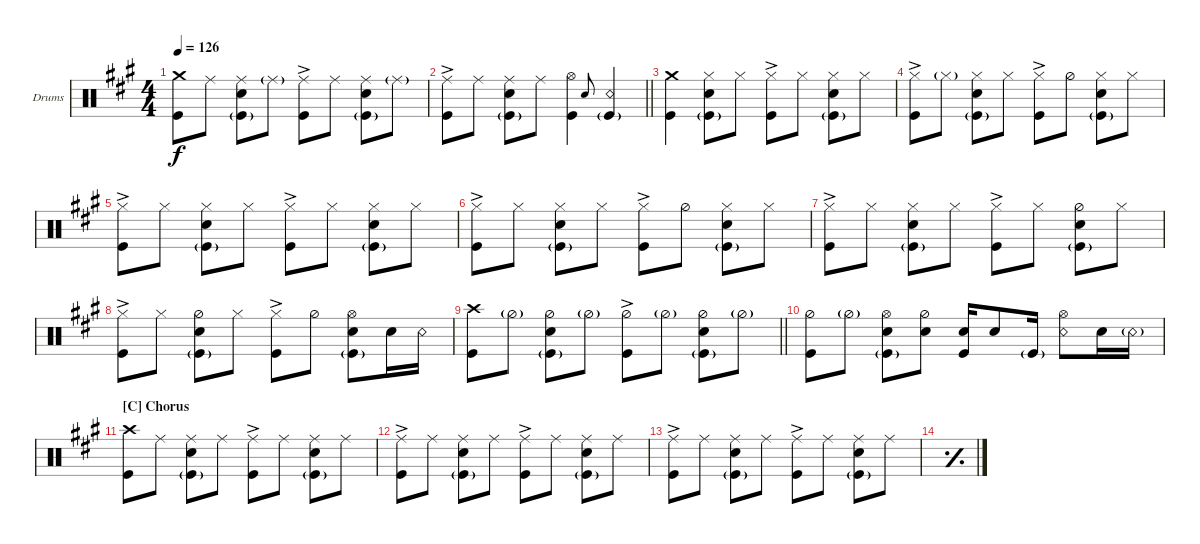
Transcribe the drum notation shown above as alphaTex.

\bracketExtendMode groupsimilarinstruments
\firstSystemTrackNameOrientation horizontal
\otherSystemsTrackNameOrientation horizontal
\track ("Drumkit" "Drums") {instrument percussion}
\staff {score}
\articulation defaults
\ts (4 4)
\tempo 126
\clef neutral
\ks a
("Kick (hit)" "Crash medium (hit)").8{dy f} "Ride (middle)".8 ("Ride (middle)" "Snare (hit) 2" "Kick (hit)"{g}).8 "Ride (middle)"{g}.8 ("Ride (middle)"{ac} "Kick (hit)").8 "Ride (middle)".8 ("Ride (middle)" "Snare (hit) 2" "Kick (hit)"{g}).8 "Ride (middle)"{g}.8 |
\barLineRight lightlight
("Ride (middle)"{ac} "Kick (hit)").8 "Ride (middle)".8 ("Ride (middle)" "Snare (hit) 2" "Kick (hit)"{g}).8 "Ride (middle)".8 ("Kick (hit)" "Hi-Hat (open)").4 "Snare (hit) 2".8{gr onbeat} ("Snare (rim shot)" "Kick (hit)"{g}).4 |
("Kick (hit)" "Crash medium (hit)").4 ("Snare (hit) 2" "Kick (hit)"{g} "Hi-Hat (closed)").8 "Hi-Hat (closed)".8 ("Kick (hit)" "Hi-Hat (closed)"{ac}).8 "Hi-Hat (closed)".8 ("Snare (hit) 2" "Kick (hit)"{g} "Hi-Hat (closed)").8 "Hi-Hat (closed)".8 |
("Kick (hit)" "Hi-Hat (closed)"{ac}).8 "Hi-Hat (closed)"{g}.8 ("Snare (hit) 2" "Kick (hit)"{g} "Hi-Hat (closed)").8 "Hi-Hat (closed)".8 ("Kick (hit)" "Hi-Hat (closed)"{ac}).8 "Hi-Hat (half)".8 ("Snare (hit) 2" "Kick (hit)"{g} "Hi-Hat (closed)").8 "Hi-Hat (closed)".8 |
("Kick (hit)" "Hi-Hat (closed)"{ac}).8 "Hi-Hat (closed)".8 ("Snare (hit) 2" "Kick (hit)"{g} "Hi-Hat (closed)").8 "Hi-Hat (closed)".8 ("Kick (hit)" "Hi-Hat (closed)"{ac}).8 "Hi-Hat (closed)".8 ("Snare (hit) 2" "Kick (hit)"{g} "Hi-Hat (closed)").8 "Hi-Hat (closed)".8 |
("Kick (hit)" "Hi-Hat (closed)"{ac}).8 "Hi-Hat (closed)".8 ("Snare (hit) 2" "Kick (hit)"{g} "Hi-Hat (closed)").8 "Hi-Hat (closed)".8 ("Kick (hit)" "Hi-Hat (closed)"{ac}).8 "Hi-Hat (half)".8 ("Snare (hit) 2" "Kick (hit)"{g} "Hi-Hat (closed)").8 "Hi-Hat (closed)".8 |
("Kick (hit)" "Hi-Hat (closed)"{ac}).8 "Hi-Hat (closed)".8 ("Snare (hit) 2" "Kick (hit)"{g} "Hi-Hat (closed)").8 "Hi-Hat (closed)".8 ("Kick (hit)" "Hi-Hat (closed)"{ac}).8 "Hi-Hat (closed)".8 ("Snare (hit) 2" "Kick (hit)"{g} "Hi-Hat (half)").8 "Hi-Hat (closed)".8 |
("Kick (hit)" "Hi-Hat (closed)"{ac}).8 "Hi-Hat (closed)".8 ("Snare (hit) 2" "Kick (hit)"{g} "Hi-Hat (half)").8 "Hi-Hat (closed)".8 ("Kick (hit)" "Hi-Hat (closed)"{ac}).8 "Hi-Hat (half)".8 ("Snare (hit) 2" "Kick (hit)"{g} "Hi-Hat (open)").8 "Snare (hit) 2".16 "Snare (rim shot)".16 |
\barLineRight lightlight
("Kick (hit)" "Crash high (hit)").8 "Hi-Hat (half)"{g}.8 ("Snare (hit) 2" "Kick (hit)"{g} "Hi-Hat (half)").8 "Hi-Hat (half)"{g}.8 ("Kick (hit)" "Hi-Hat (half)"{ac}).8 "Hi-Hat (half)"{g}.8 ("Snare (hit) 2" "Kick (hit)"{g} "Hi-Hat (half)").8 "Hi-Hat (half)"{g}.8 |
("Kick (hit)" "Hi-Hat (half)").8 "Hi-Hat (half)"{g}.8 ("Snare (hit) 2" "Kick (hit)"{g} "Hi-Hat (open)").8 ("Hi-Hat (half)" "Snare (hit) 2").8 ("Snare (hit) 2" "Kick (hit)").16 "Snare (hit) 2".8 "Kick (hit)"{g}.16 ("Snare (rim shot)" "Hi-Hat (open)").8 "Snare (hit) 2".16 "Snare (rim shot)"{g}.16 |
\section ("C" "Chorus")
("Crash high (hit)" "Kick (hit)").8 "Ride (middle)".8 ("Ride (middle)" "Snare (hit) 2" "Kick (hit)"{g}).8 "Ride (middle)".8 ("Ride (middle)"{ac} "Kick (hit)").8 "Ride (middle)".8 ("Ride (middle)" "Snare (hit) 2" "Kick (hit)"{g}).8 "Ride (middle)".8 |
("Ride (middle)"{ac} "Kick (hit)").8 "Ride (middle)".8 ("Ride (middle)" "Snare (hit) 2" "Kick (hit)"{g}).8 "Ride (middle)".8 ("Ride (middle)"{ac} "Kick (hit)").8 "Ride (middle)".8 ("Ride (middle)" "Snare (hit) 2" "Kick (hit)"{g}).8 "Ride (middle)".8 |
("Ride (middle)"{ac} "Kick (hit)").8 "Ride (middle)".8 ("Ride (middle)" "Snare (hit) 2" "Kick (hit)"{g}).8 "Ride (middle)".8 ("Ride (middle)"{ac} "Kick (hit)").8 "Ride (middle)".8 ("Ride (middle)" "Snare (hit) 2" "Kick (hit)"{g}).8 "Ride (middle)".8 |
\simile simple
